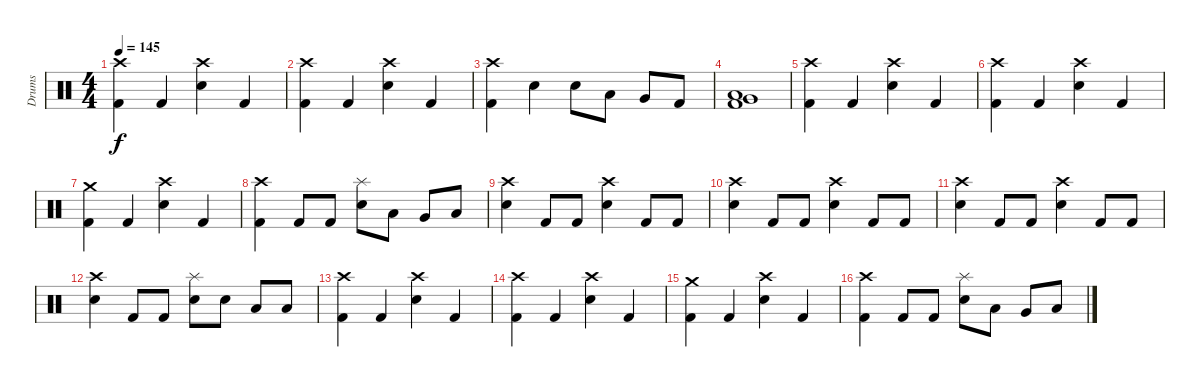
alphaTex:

\track ("Drums" "Drums") {instrument percussion}
\staff {score}
\articulation defaults
\ts (4 4)
\tempo 145
\clef neutral
\ks c
("Crash high (hit)" "Kick (hit) 2").4{dy f} "Kick (hit) 2".4 ("Crash high (hit)" "Snare (hit) 2").4 "Kick (hit) 2".4 |
("Crash high (hit)" "Kick (hit) 2").4 "Kick (hit) 2".4 ("Crash high (hit)" "Snare (hit) 2").4 "Kick (hit) 2".4 |
("Crash high (hit)" "Kick (hit) 2").4 "Snare (hit) 2".4 "Snare (hit) 2".8 "Low Tom (hit)".8 "Very Low Tom (hit)".8 "Kick (hit) 2".8 |
("Very Low Tom (hit)" "Low Floor Tom (hit)" "Kick (hit) 2").1 |
("Crash high (hit)" "Kick (hit) 2").4 "Kick (hit) 2".4 ("Crash high (hit)" "Snare (hit) 2").4 "Kick (hit) 2".4 |
("Crash high (hit)" "Kick (hit) 2").4 "Kick (hit) 2".4 ("Crash high (hit)" "Snare (hit) 2").4 "Kick (hit) 2".4 |
("Crash medium (hit)" "Kick (hit) 2").4 "Kick (hit) 2".4 ("Crash high (hit)" "Snare (hit) 2").4 "Kick (hit) 2".4 |
("Crash high (hit)" "Kick (hit) 2").4 "Kick (hit) 2".8 "Kick (hit) 2".8 ("Splash (hit)" "Snare (hit) 2").8 "Low Tom (hit)".8 "Very Low Tom (hit)".8 "Low Floor Tom (hit)".8 |
("Crash high (hit)" "Snare (hit) 2").4 "Kick (hit) 2".8 "Kick (hit) 2".8 ("Crash high (hit)" "Snare (hit) 2").4 "Kick (hit) 2".8 "Kick (hit) 2".8 |
("Crash high (hit)" "Snare (hit) 2").4 "Kick (hit) 2".8 "Kick (hit) 2".8 ("Crash high (hit)" "Snare (hit) 2").4 "Kick (hit) 2".8 "Kick (hit) 2".8 |
("Crash high (hit)" "Snare (hit) 2").4 "Kick (hit) 2".8 "Kick (hit) 2".8 ("Crash high (hit)" "Snare (hit) 2").4 "Kick (hit) 2".8 "Kick (hit) 2".8 |
("Crash high (hit)" "Snare (hit) 2").4 "Kick (hit) 2".8 "Kick (hit) 2".8 ("Splash (hit)" "Snare (hit) 2").8 "Snare (hit) 2".8 "Low Tom (hit)".8 "Low Tom (hit)".8 |
("Crash high (hit)" "Kick (hit) 2").4 "Kick (hit) 2".4 ("Crash high (hit)" "Snare (hit) 2").4 "Kick (hit) 2".4 |
("Crash high (hit)" "Kick (hit) 2").4 "Kick (hit) 2".4 ("Crash high (hit)" "Snare (hit) 2").4 "Kick (hit) 2".4 |
("Crash medium (hit)" "Kick (hit) 2").4 "Kick (hit) 2".4 ("Crash high (hit)" "Snare (hit) 2").4 "Kick (hit) 2".4 |
("Crash high (hit)" "Kick (hit) 2").4 "Kick (hit) 2".8 "Kick (hit) 2".8 ("Splash (hit)" "Snare (hit) 2").8 "Low Tom (hit)".8 "Very Low Tom (hit)".8 "Low Floor Tom (hit)".8
